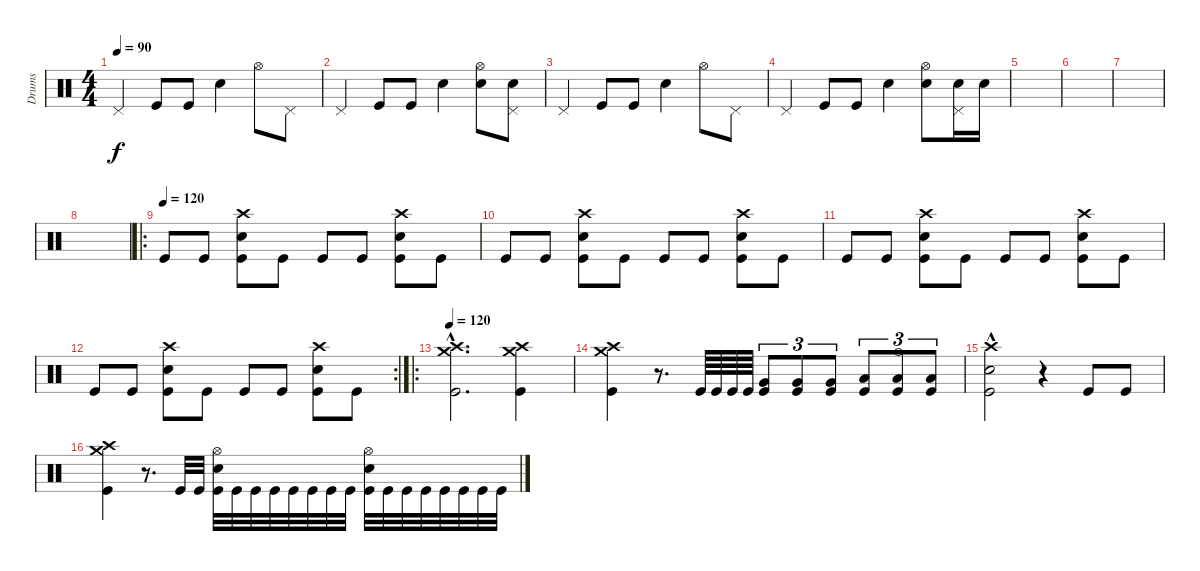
\track ("Drums" "Drums") {instrument percussion}
\staff {score}
\articulation defaults
\ts (4 4)
\tempo 90
\clef neutral
\ks c "Pedal Hi-Hat (hit)".4{dy f} "Kick (hit)".8 "Kick (hit)".8 "Electric Snare (hit)".4 "Hi-Hat (open)".8 "Pedal Hi-Hat (hit)".8
|
"Pedal Hi-Hat (hit)".4 "Kick (hit)".8 "Kick (hit)".8 "Electric Snare (hit)".4 ("Hi-Hat (open)" "Electric Snare (hit)").8 ("Pedal Hi-Hat (hit)" "Electric Snare (hit)").8 |
"Pedal Hi-Hat (hit)".4 "Kick (hit)".8 "Kick (hit)".8 "Electric Snare (hit)".4 "Hi-Hat (open)".8 "Pedal Hi-Hat (hit)".8 |
"Pedal Hi-Hat (hit)".4 "Kick (hit)".8 "Kick (hit)".8 "Electric Snare (hit)".4 ("Hi-Hat (open)" "Electric Snare (hit)").8 ("Pedal Hi-Hat (hit)" "Electric Snare (hit)").16 "Electric Snare (hit)".16 |
|
|
|
|
\ro
\tempo (120)
"Kick (hit)".8 "Kick (hit)".8 ("Kick (hit)" "Crash high (hit)" "Electric Snare (hit)").8 "Kick (hit)".8 "Kick (hit)".8 "Kick (hit)".8 ("Kick (hit)" "Crash high (hit)" "Electric Snare (hit)").8 "Kick (hit)".8 |
"Kick (hit)".8 "Kick (hit)".8 ("Kick (hit)" "Crash high (hit)" "Electric Snare (hit)").8 "Kick (hit)".8 "Kick (hit)".8 "Kick (hit)".8 ("Kick (hit)" "Crash high (hit)" "Electric Snare (hit)").8 "Kick (hit)".8 |
"Kick (hit)".8 "Kick (hit)".8 ("Kick (hit)" "Crash high (hit)" "Electric Snare (hit)").8 "Kick (hit)".8 "Kick (hit)".8 "Kick (hit)".8 ("Kick (hit)" "Crash high (hit)" "Electric Snare (hit)").8 "Kick (hit)".8 |
\rc 2 "Kick (hit)".8 "Kick (hit)".8
("Kick (hit)" "Crash high (hit)" "Electric Snare (hit)").8 "Kick (hit)".8 "Kick (hit)".8 "Kick (hit)".8 ("Kick (hit)" "Crash high (hit)" "Electric Snare (hit)").8 "Kick (hit)".8 |
\ro
\tempo 120
("Crash medium (hit)"{hac} "Crash high (hit)"{hac} "Kick (hit)"{hac}).2{d} ("Crash medium (hit)" "Crash high (hit)" "Kick (hit)").4 |
("Crash medium (hit)" "Crash high (hit)" "Kick (hit)").4 r.8{d} "Kick (hit)".64 "Kick (hit)".64 "Kick (hit)".64 "Kick (hit)".64 ("Very Low Tom (hit)" "Kick (hit)").8{tu (3 2)} ("Very Low Tom (hit)" "Kick (hit)").8{tu (3 2)} ("Very Low Tom (hit)" "Kick (hit)").8{tu (3 2)} ("Low Floor Tom (hit)" "Kick (hit)").8{tu (3 2)} ("Hi-Hat (open)" "Low Floor Tom (hit)" "Kick (hit)").8{tu (3 2)} ("Low Floor Tom (hit)" "Kick (hit)").8{tu (3 2)} |
("Crash high (hit)"{hac} "Electric Snare (hit)" "Kick (hit)").2 r.4 "Kick (hit)".8 "Kick (hit)".8 |
("Crash medium (hit)" "Crash high (hit)" "Kick (hit)").4 r.8{d} "Kick (hit)".32 "Kick (hit)".32 ("Hi-Hat (open)" "Electric Snare (hit)" "Kick (hit)").32 "Kick (hit)".32 "Kick (hit)".32 "Kick (hit)".32 "Kick (hit)".32 "Kick (hit)".32 "Kick (hit)".32 "Kick (hit)".32 ("Hi-Hat (open)" "Electric Snare (hit)" "Kick (hit)").32 "Kick (hit)".32 "Kick (hit)".32 "Kick (hit)".32 "Kick (hit)".32 "Kick (hit)".32 "Kick (hit)".32 "Kick (hit)".32
